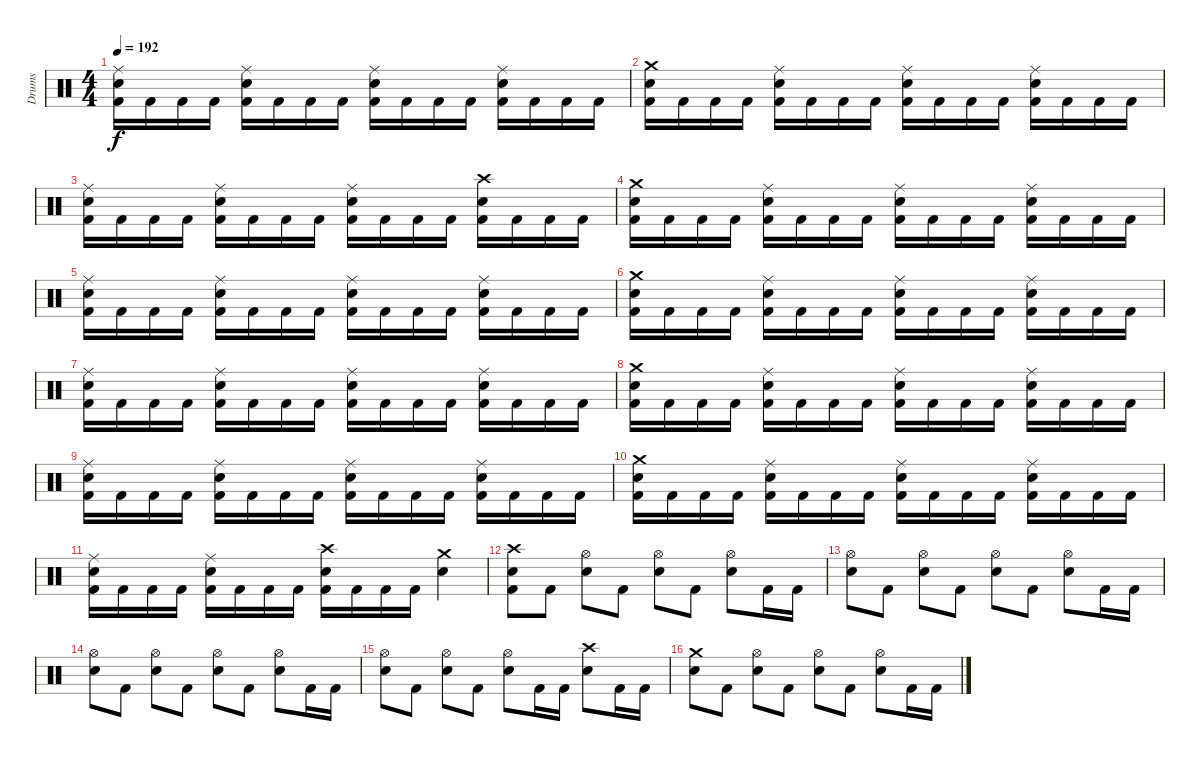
\track ("Drums" "Drums") {instrument percussion}
\staff {score}
\articulation defaults
\ts (4 4)
\tempo 192
\clef neutral
\ks c
("Ride (middle)" "Electric Snare (hit)" "Kick (hit) 2").16{dy f} "Kick (hit) 2".16 "Kick (hit) 2".16 "Kick (hit) 2".16 ("Ride (middle)" "Electric Snare (hit)" "Kick (hit) 2").16 "Kick (hit) 2".16 "Kick (hit) 2".16 "Kick (hit) 2".16 ("Ride (middle)" "Electric Snare (hit)" "Kick (hit) 2").16 "Kick (hit) 2".16 "Kick (hit) 2".16 "Kick (hit) 2".16 ("Ride (middle)" "Electric Snare (hit)" "Kick (hit) 2").16 "Kick (hit) 2".16 "Kick (hit) 2".16 "Kick (hit) 2".16 |
("Crash medium (hit)" "Electric Snare (hit)" "Kick (hit) 2").16 "Kick (hit) 2".16 "Kick (hit) 2".16 "Kick (hit) 2".16 ("Ride (middle)" "Electric Snare (hit)" "Kick (hit) 2").16 "Kick (hit) 2".16 "Kick (hit) 2".16 "Kick (hit) 2".16 ("Ride (middle)" "Electric Snare (hit)" "Kick (hit) 2").16 "Kick (hit) 2".16 "Kick (hit) 2".16 "Kick (hit) 2".16 ("Ride (middle)" "Electric Snare (hit)" "Kick (hit) 2").16 "Kick (hit) 2".16 "Kick (hit) 2".16 "Kick (hit) 2".16 |
("Ride (middle)" "Electric Snare (hit)" "Kick (hit) 2").16 "Kick (hit) 2".16 "Kick (hit) 2".16 "Kick (hit) 2".16 ("Ride (middle)" "Electric Snare (hit)" "Kick (hit) 2").16 "Kick (hit) 2".16 "Kick (hit) 2".16 "Kick (hit) 2".16 ("Ride (middle)" "Electric Snare (hit)" "Kick (hit) 2").16 "Kick (hit) 2".16 "Kick (hit) 2".16 "Kick (hit) 2".16 ("Crash high (hit)" "Electric Snare (hit)" "Kick (hit) 2").16 "Kick (hit) 2".16 "Kick (hit) 2".16 "Kick (hit) 2".16 |
("Crash medium (hit)" "Electric Snare (hit)" "Kick (hit) 2").16 "Kick (hit) 2".16 "Kick (hit) 2".16 "Kick (hit) 2".16 ("Ride (middle)" "Electric Snare (hit)" "Kick (hit) 2").16 "Kick (hit) 2".16 "Kick (hit) 2".16 "Kick (hit) 2".16 ("Ride (middle)" "Electric Snare (hit)" "Kick (hit) 2").16 "Kick (hit) 2".16 "Kick (hit) 2".16 "Kick (hit) 2".16 ("Ride (middle)" "Electric Snare (hit)" "Kick (hit) 2").16 "Kick (hit) 2".16 "Kick (hit) 2".16 "Kick (hit) 2".16 |
("Ride (middle)" "Electric Snare (hit)" "Kick (hit) 2").16 "Kick (hit) 2".16 "Kick (hit) 2".16 "Kick (hit) 2".16 ("Ride (middle)" "Electric Snare (hit)" "Kick (hit) 2").16 "Kick (hit) 2".16 "Kick (hit) 2".16 "Kick (hit) 2".16 ("Ride (middle)" "Electric Snare (hit)" "Kick (hit) 2").16 "Kick (hit) 2".16 "Kick (hit) 2".16 "Kick (hit) 2".16 ("Ride (middle)" "Electric Snare (hit)" "Kick (hit) 2").16 "Kick (hit) 2".16 "Kick (hit) 2".16 "Kick (hit) 2".16 |
("Crash medium (hit)" "Electric Snare (hit)" "Kick (hit) 2").16 "Kick (hit) 2".16 "Kick (hit) 2".16 "Kick (hit) 2".16 ("Ride (middle)" "Electric Snare (hit)" "Kick (hit) 2").16 "Kick (hit) 2".16 "Kick (hit) 2".16 "Kick (hit) 2".16 ("Ride (middle)" "Electric Snare (hit)" "Kick (hit) 2").16 "Kick (hit) 2".16 "Kick (hit) 2".16 "Kick (hit) 2".16 ("Ride (middle)" "Electric Snare (hit)" "Kick (hit) 2").16 "Kick (hit) 2".16 "Kick (hit) 2".16 "Kick (hit) 2".16 |
("Ride (middle)" "Electric Snare (hit)" "Kick (hit) 2").16 "Kick (hit) 2".16 "Kick (hit) 2".16 "Kick (hit) 2".16 ("Ride (middle)" "Electric Snare (hit)" "Kick (hit) 2").16 "Kick (hit) 2".16 "Kick (hit) 2".16 "Kick (hit) 2".16 ("Ride (middle)" "Electric Snare (hit)" "Kick (hit) 2").16 "Kick (hit) 2".16 "Kick (hit) 2".16 "Kick (hit) 2".16 ("Ride (middle)" "Electric Snare (hit)" "Kick (hit) 2").16 "Kick (hit) 2".16 "Kick (hit) 2".16 "Kick (hit) 2".16 |
("Crash medium (hit)" "Electric Snare (hit)" "Kick (hit) 2").16 "Kick (hit) 2".16 "Kick (hit) 2".16 "Kick (hit) 2".16 ("Ride (middle)" "Electric Snare (hit)" "Kick (hit) 2").16 "Kick (hit) 2".16 "Kick (hit) 2".16 "Kick (hit) 2".16 ("Ride (middle)" "Electric Snare (hit)" "Kick (hit) 2").16 "Kick (hit) 2".16 "Kick (hit) 2".16 "Kick (hit) 2".16 ("Ride (middle)" "Electric Snare (hit)" "Kick (hit) 2").16 "Kick (hit) 2".16 "Kick (hit) 2".16 "Kick (hit) 2".16 |
("Ride (middle)" "Electric Snare (hit)" "Kick (hit) 2").16 "Kick (hit) 2".16 "Kick (hit) 2".16 "Kick (hit) 2".16 ("Ride (middle)" "Electric Snare (hit)" "Kick (hit) 2").16 "Kick (hit) 2".16 "Kick (hit) 2".16 "Kick (hit) 2".16 ("Ride (middle)" "Electric Snare (hit)" "Kick (hit) 2").16 "Kick (hit) 2".16 "Kick (hit) 2".16 "Kick (hit) 2".16 ("Ride (middle)" "Electric Snare (hit)" "Kick (hit) 2").16 "Kick (hit) 2".16 "Kick (hit) 2".16 "Kick (hit) 2".16 |
("Crash medium (hit)" "Electric Snare (hit)" "Kick (hit) 2").16 "Kick (hit) 2".16 "Kick (hit) 2".16 "Kick (hit) 2".16 ("Ride (middle)" "Electric Snare (hit)" "Kick (hit) 2").16 "Kick (hit) 2".16 "Kick (hit) 2".16 "Kick (hit) 2".16 ("Ride (middle)" "Electric Snare (hit)" "Kick (hit) 2").16 "Kick (hit) 2".16 "Kick (hit) 2".16 "Kick (hit) 2".16 ("Ride (middle)" "Electric Snare (hit)" "Kick (hit) 2").16 "Kick (hit) 2".16 "Kick (hit) 2".16 "Kick (hit) 2".16 |
("Ride (middle)" "Electric Snare (hit)" "Kick (hit) 2").16 "Kick (hit) 2".16 "Kick (hit) 2".16 "Kick (hit) 2".16 ("Ride (middle)" "Electric Snare (hit)" "Kick (hit) 2").16 "Kick (hit) 2".16 "Kick (hit) 2".16 "Kick (hit) 2".16 ("Crash high (hit)" "Electric Snare (hit)" "Kick (hit) 2").16 "Kick (hit) 2".16 "Kick (hit) 2".16 "Kick (hit) 2".16 ("Crash medium (hit)" "Electric Snare (hit)").4 |
("Crash high (hit)" "Electric Snare (hit)" "Kick (hit) 2").8 "Kick (hit) 2".8 ("Hi-Hat (open)" "Electric Snare (hit)").8 "Kick (hit) 2".8 ("Hi-Hat (open)" "Electric Snare (hit)").8 "Kick (hit) 2".8 ("Hi-Hat (open)" "Electric Snare (hit)").8 "Kick (hit) 2".16 "Kick (hit) 2".16 |
("Hi-Hat (open)" "Electric Snare (hit)").8 "Kick (hit) 2".8 ("Hi-Hat (open)" "Electric Snare (hit)").8 "Kick (hit) 2".8 ("Hi-Hat (open)" "Electric Snare (hit)").8 "Kick (hit) 2".8 ("Hi-Hat (open)" "Electric Snare (hit)").8 "Kick (hit) 2".16 "Kick (hit) 2".16 |
("Hi-Hat (open)" "Electric Snare (hit)").8 "Kick (hit) 2".8 ("Hi-Hat (open)" "Electric Snare (hit)").8 "Kick (hit) 2".8 ("Hi-Hat (open)" "Electric Snare (hit)").8 "Kick (hit) 2".8 ("Hi-Hat (open)" "Electric Snare (hit)").8 "Kick (hit) 2".16 "Kick (hit) 2".16 |
("Hi-Hat (open)" "Electric Snare (hit)").8 "Kick (hit) 2".8 ("Hi-Hat (open)" "Electric Snare (hit)").8 "Kick (hit) 2".8 ("Hi-Hat (open)" "Electric Snare (hit)").8 "Kick (hit) 2".16 "Kick (hit) 2".16 ("Crash high (hit)" "Electric Snare (hit)").8 "Kick (hit) 2".16 "Kick (hit) 2".16 |
("Crash medium (hit)" "Electric Snare (hit)").8 "Kick (hit) 2".8 ("Hi-Hat (open)" "Electric Snare (hit)").8 "Kick (hit) 2".8 ("Hi-Hat (open)" "Electric Snare (hit)").8 "Kick (hit) 2".8 ("Hi-Hat (open)" "Electric Snare (hit)").8 "Kick (hit) 2".16 "Kick (hit) 2".16
